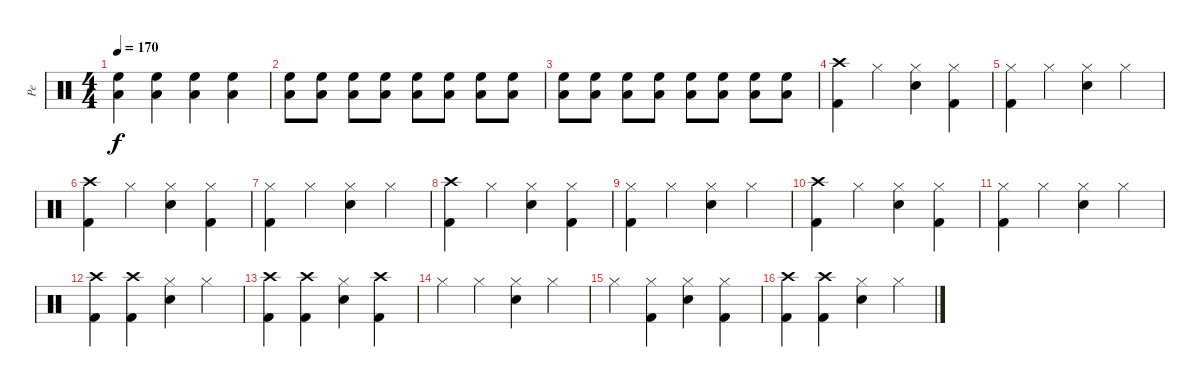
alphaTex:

\track ("Pe" "Pe") {instrument percussion}
\staff {score}
\articulation defaults
\ts (4 4)
\tempo 170
\clef neutral
\ks c
("High Floor Tom (hit)" "Low Tom (hit)").4{dy f} ("High Floor Tom (hit)" "Low Tom (hit)").4 ("High Floor Tom (hit)" "Low Tom (hit)").4 ("High Floor Tom (hit)" "Low Tom (hit)").4 |
("High Floor Tom (hit)" "Low Tom (hit)").8 ("High Floor Tom (hit)" "Low Tom (hit)").8 ("High Floor Tom (hit)" "Low Tom (hit)").8 ("High Floor Tom (hit)" "Low Tom (hit)").8 ("High Floor Tom (hit)" "Low Tom (hit)").8 ("High Floor Tom (hit)" "Low Tom (hit)").8 ("High Floor Tom (hit)" "Low Tom (hit)").8 ("High Floor Tom (hit)" "Low Tom (hit)").8 |
("High Floor Tom (hit)" "Low Tom (hit)").8 ("High Floor Tom (hit)" "Low Tom (hit)").8 ("High Floor Tom (hit)" "Low Tom (hit)").8 ("High Floor Tom (hit)" "Low Tom (hit)").8 ("High Floor Tom (hit)" "Low Tom (hit)").8 ("High Floor Tom (hit)" "Low Tom (hit)").8 ("High Floor Tom (hit)" "Low Tom (hit)").8 ("High Floor Tom (hit)" "Low Tom (hit)").8 |
("Kick (hit) 2" "Crash high (hit)").4 "Hi-Hat (closed)".4 ("Snare (hit) 2" "Hi-Hat (closed)").4 ("Kick (hit) 2" "Hi-Hat (closed)").4 |
("Kick (hit) 2" "Hi-Hat (closed)").4 "Hi-Hat (closed)".4 ("Snare (hit) 2" "Hi-Hat (closed)").4 "Hi-Hat (closed)".4 |
("Kick (hit) 2" "Crash high (hit)").4 "Hi-Hat (closed)".4 ("Snare (hit) 2" "Hi-Hat (closed)").4 ("Kick (hit) 2" "Hi-Hat (closed)").4 |
("Kick (hit) 2" "Hi-Hat (closed)").4 "Hi-Hat (closed)".4 ("Snare (hit) 2" "Hi-Hat (closed)").4 "Hi-Hat (closed)".4 |
("Kick (hit) 2" "Crash high (hit)").4 "Hi-Hat (closed)".4 ("Snare (hit) 2" "Hi-Hat (closed)").4 ("Kick (hit) 2" "Hi-Hat (closed)").4 |
("Kick (hit) 2" "Hi-Hat (closed)").4 "Hi-Hat (closed)".4 ("Snare (hit) 2" "Hi-Hat (closed)").4 "Hi-Hat (closed)".4 |
("Kick (hit) 2" "Crash high (hit)").4 "Hi-Hat (closed)".4 ("Snare (hit) 2" "Hi-Hat (closed)").4 ("Kick (hit) 2" "Hi-Hat (closed)").4 |
("Kick (hit) 2" "Hi-Hat (closed)").4 "Hi-Hat (closed)".4 ("Snare (hit) 2" "Hi-Hat (closed)").4 "Hi-Hat (closed)".4 |
("Kick (hit) 2" "Crash high (hit)").4 ("Kick (hit) 2" "Crash high (hit)").4 ("Snare (hit) 2" "Hi-Hat (closed)").4 "Hi-Hat (closed)".4 |
("Kick (hit) 2" "Crash high (hit)").4 ("Kick (hit) 2" "Crash high (hit)").4 ("Snare (hit) 2" "Hi-Hat (closed)").4 ("Kick (hit) 2" "Crash high (hit)").4 |
"Hi-Hat (closed)".4 "Hi-Hat (closed)".4 ("Snare (hit) 2" "Hi-Hat (closed)").4 "Hi-Hat (closed)".4 |
"Hi-Hat (closed)".4 ("Kick (hit) 2" "Hi-Hat (closed)").4 ("Snare (hit) 2" "Hi-Hat (closed)").4 ("Kick (hit) 2" "Hi-Hat (closed)").4 |
("Kick (hit) 2" "Crash high (hit)").4 ("Kick (hit) 2" "Crash high (hit)").4 ("Snare (hit) 2" "Hi-Hat (closed)").4 "Hi-Hat (closed)".4
